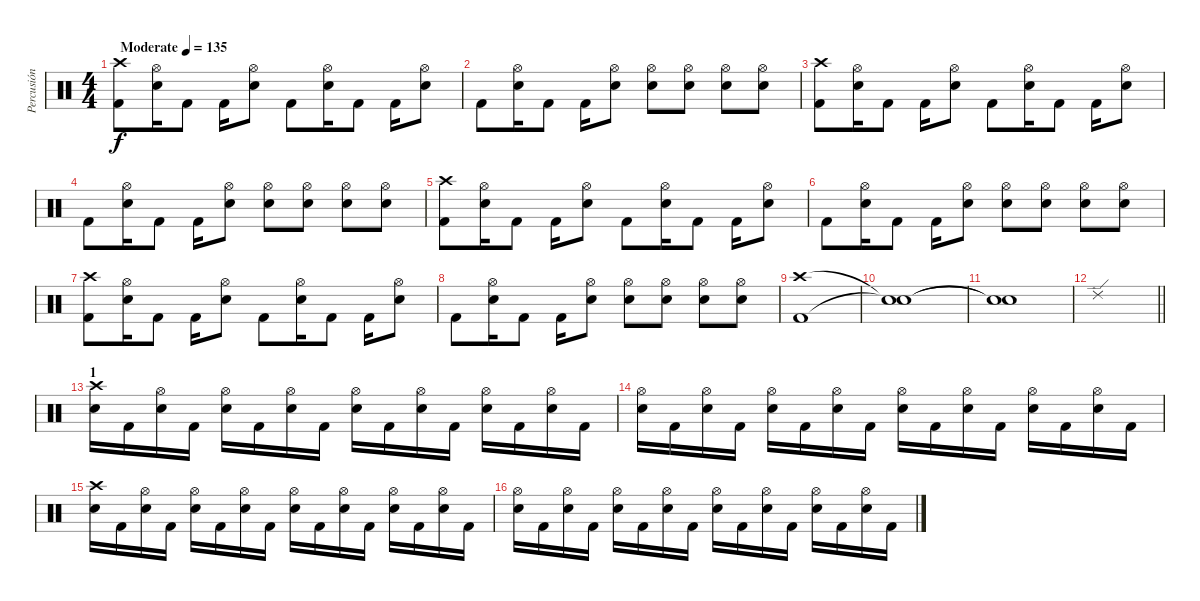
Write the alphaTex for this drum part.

\track ("Percusión" "Percusión") {instrument percussion}
\staff {score}
\articulation defaults
\ts (4 4)
\tempo (135 "Moderate")
\clef neutral
\ks c
("Crash high (hit)" "Kick (hit) 2").8{dy f} ("Hi-Hat (open)" "Snare (hit) 2").16 "Kick (hit) 2".8 "Kick (hit) 2".16 ("Hi-Hat (open)" "Snare (hit) 2").8 "Kick (hit) 2".8 ("Hi-Hat (open)" "Snare (hit) 2").16 "Kick (hit) 2".8 "Kick (hit) 2".16 ("Hi-Hat (open)" "Snare (hit) 2").8 |
"Kick (hit) 2".8 ("Hi-Hat (open)" "Snare (hit) 2").16 "Kick (hit) 2".8 "Kick (hit) 2".16 ("Hi-Hat (open)" "Snare (hit) 2").8 ("Hi-Hat (open)" "Snare (hit) 2").8 ("Hi-Hat (open)" "Snare (hit) 2").8 ("Hi-Hat (open)" "Snare (hit) 2").8 ("Hi-Hat (open)" "Snare (hit) 2").8 |
("Crash high (hit)" "Kick (hit) 2").8 ("Hi-Hat (open)" "Snare (hit) 2").16 "Kick (hit) 2".8 "Kick (hit) 2".16 ("Hi-Hat (open)" "Snare (hit) 2").8 "Kick (hit) 2".8 ("Hi-Hat (open)" "Snare (hit) 2").16 "Kick (hit) 2".8 "Kick (hit) 2".16 ("Hi-Hat (open)" "Snare (hit) 2").8 |
"Kick (hit) 2".8 ("Hi-Hat (open)" "Snare (hit) 2").16 "Kick (hit) 2".8 "Kick (hit) 2".16 ("Hi-Hat (open)" "Snare (hit) 2").8 ("Hi-Hat (open)" "Snare (hit) 2").8 ("Hi-Hat (open)" "Snare (hit) 2").8 ("Hi-Hat (open)" "Snare (hit) 2").8 ("Hi-Hat (open)" "Snare (hit) 2").8 |
("Crash high (hit)" "Kick (hit) 2").8 ("Hi-Hat (open)" "Snare (hit) 2").16 "Kick (hit) 2".8 "Kick (hit) 2".16 ("Hi-Hat (open)" "Snare (hit) 2").8 "Kick (hit) 2".8 ("Hi-Hat (open)" "Snare (hit) 2").16 "Kick (hit) 2".8 "Kick (hit) 2".16 ("Hi-Hat (open)" "Snare (hit) 2").8 |
"Kick (hit) 2".8 ("Hi-Hat (open)" "Snare (hit) 2").16 "Kick (hit) 2".8 "Kick (hit) 2".16 ("Hi-Hat (open)" "Snare (hit) 2").8 ("Hi-Hat (open)" "Snare (hit) 2").8 ("Hi-Hat (open)" "Snare (hit) 2").8 ("Hi-Hat (open)" "Snare (hit) 2").8 ("Hi-Hat (open)" "Snare (hit) 2").8 |
("Crash high (hit)" "Kick (hit) 2").8 ("Hi-Hat (open)" "Snare (hit) 2").16 "Kick (hit) 2".8 "Kick (hit) 2".16 ("Hi-Hat (open)" "Snare (hit) 2").8 "Kick (hit) 2".8 ("Hi-Hat (open)" "Snare (hit) 2").16 "Kick (hit) 2".8 "Kick (hit) 2".16 ("Hi-Hat (open)" "Snare (hit) 2").8 |
"Kick (hit) 2".8 ("Hi-Hat (open)" "Snare (hit) 2").16 "Kick (hit) 2".8 "Kick (hit) 2".16 ("Hi-Hat (open)" "Snare (hit) 2").8 ("Hi-Hat (open)" "Snare (hit) 2").8 ("Hi-Hat (open)" "Snare (hit) 2").8 ("Hi-Hat (open)" "Snare (hit) 2").8 ("Hi-Hat (open)" "Snare (hit) 2").8 |
("Crash high (hit)" "Kick (hit) 2").1 |
("Snare (hit)"{t} "Snare (hit)"{t}).1 |
("Snare (hit)"{t} "Snare (hit)"{t}).1 |
\barLineRight lightlight "Ride (edge) 2".1
|
\section ("" "1")
("Crash high (hit)" "Snare (hit) 2").16 "Kick (hit) 2".16 ("Hi-Hat (open)" "Snare (hit) 2").16 "Kick (hit) 2".16 ("Hi-Hat (open)" "Snare (hit) 2").16 "Kick (hit) 2".16 ("Hi-Hat (open)" "Snare (hit) 2").16 "Kick (hit) 2".16 ("Hi-Hat (open)" "Snare (hit) 2").16 "Kick (hit) 2".16 ("Hi-Hat (open)" "Snare (hit) 2").16 "Kick (hit) 2".16 ("Hi-Hat (open)" "Snare (hit) 2").16 "Kick (hit) 2".16 ("Hi-Hat (open)" "Snare (hit) 2").16 "Kick (hit) 2".16 |
("Hi-Hat (open)" "Snare (hit) 2").16 "Kick (hit) 2".16 ("Hi-Hat (open)" "Snare (hit) 2").16 "Kick (hit) 2".16 ("Hi-Hat (open)" "Snare (hit) 2").16 "Kick (hit) 2".16 ("Hi-Hat (open)" "Snare (hit) 2").16 "Kick (hit) 2".16 ("Hi-Hat (open)" "Snare (hit) 2").16 "Kick (hit) 2".16 ("Hi-Hat (open)" "Snare (hit) 2").16 "Kick (hit) 2".16 ("Hi-Hat (open)" "Snare (hit) 2").16 "Kick (hit) 2".16 ("Hi-Hat (open)" "Snare (hit) 2").16 "Kick (hit) 2".16 |
("Crash high (hit)" "Snare (hit) 2").16 "Kick (hit) 2".16 ("Hi-Hat (open)" "Snare (hit) 2").16 "Kick (hit) 2".16 ("Hi-Hat (open)" "Snare (hit) 2").16 "Kick (hit) 2".16 ("Hi-Hat (open)" "Snare (hit) 2").16 "Kick (hit) 2".16 ("Hi-Hat (open)" "Snare (hit) 2").16 "Kick (hit) 2".16 ("Hi-Hat (open)" "Snare (hit) 2").16 "Kick (hit) 2".16 ("Hi-Hat (open)" "Snare (hit) 2").16 "Kick (hit) 2".16 ("Hi-Hat (open)" "Snare (hit) 2").16 "Kick (hit) 2".16 |
("Hi-Hat (open)" "Snare (hit) 2").16 "Kick (hit) 2".16 ("Hi-Hat (open)" "Snare (hit) 2").16 "Kick (hit) 2".16 ("Hi-Hat (open)" "Snare (hit) 2").16 "Kick (hit) 2".16 ("Hi-Hat (open)" "Snare (hit) 2").16 "Kick (hit) 2".16 ("Hi-Hat (open)" "Snare (hit) 2").16 "Kick (hit) 2".16 ("Hi-Hat (open)" "Snare (hit) 2").16 "Kick (hit) 2".16 ("Hi-Hat (open)" "Snare (hit) 2").16 "Kick (hit) 2".16 ("Hi-Hat (open)" "Snare (hit) 2").16 "Kick (hit) 2".16
